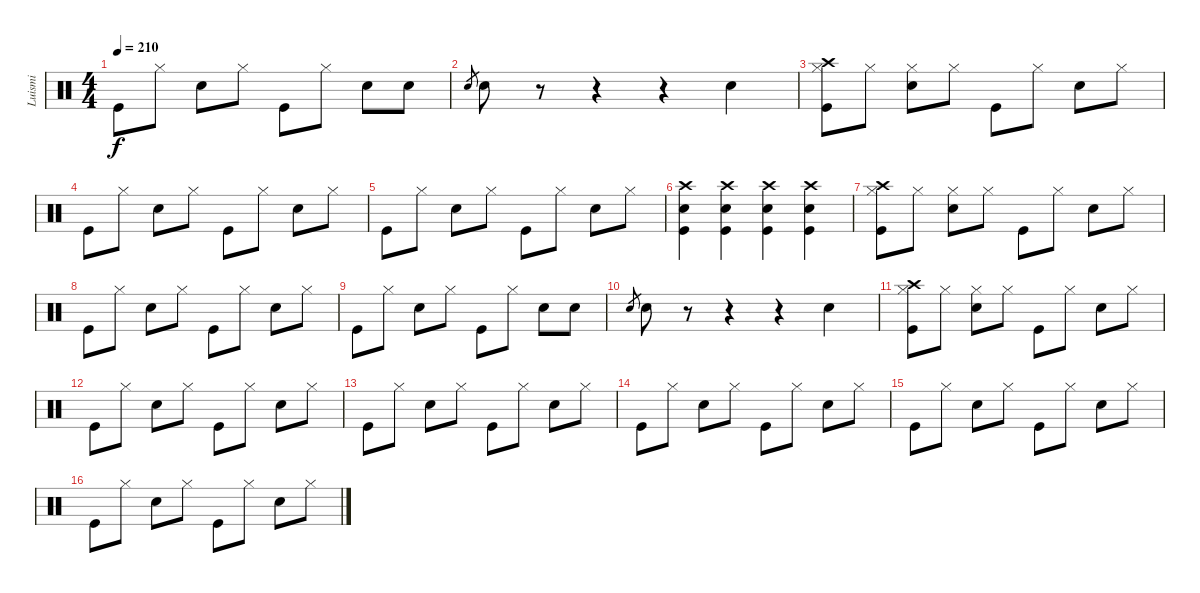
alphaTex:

\track ("Luismi" "Luismi") {instrument percussion}
\staff {score}
\articulation defaults
\ts (4 4)
\tempo 210
\clef neutral
\ks c "Kick (hit)".8{dy f} "Hi-Hat (closed)".8 "Snare (hit) 2".8 "Hi-Hat (closed)".8 "Kick (hit)".8 "Hi-Hat (closed)".8 "Snare (hit) 2".8 "Snare (hit) 2".8
|
"Snare (hit) 2".8{gr} "Snare (hit) 2".8 r.8 r.4 r.4 "Snare (hit) 2".4 |
("Kick (hit)" "Crash high (hit)" "Hi-Hat (closed)").8 "Hi-Hat (closed)".8 ("Snare (hit) 2" "Hi-Hat (closed)").8 "Hi-Hat (closed)".8 "Kick (hit)".8 "Hi-Hat (closed)".8 "Snare (hit) 2".8 "Hi-Hat (closed)".8 |
"Kick (hit)".8 "Hi-Hat (closed)".8 "Snare (hit) 2".8 "Hi-Hat (closed)".8 "Kick (hit)".8 "Hi-Hat (closed)".8 "Snare (hit) 2".8 "Hi-Hat (closed)".8 |
"Kick (hit)".8 "Hi-Hat (closed)".8 "Snare (hit) 2".8 "Hi-Hat (closed)".8 "Kick (hit)".8 "Hi-Hat (closed)".8 "Snare (hit) 2".8 "Hi-Hat (closed)".8 |
("Snare (hit) 2" "Kick (hit)" "Crash high (hit)").4 ("Snare (hit) 2" "Kick (hit)" "Crash high (hit)").4 ("Snare (hit) 2" "Kick (hit)" "Crash high (hit)").4 ("Snare (hit) 2" "Kick (hit)" "Crash high (hit)").4 |
("Kick (hit)" "Crash high (hit)" "Hi-Hat (closed)").8 "Hi-Hat (closed)".8 ("Snare (hit) 2" "Hi-Hat (closed)").8 "Hi-Hat (closed)".8 "Kick (hit)".8 "Hi-Hat (closed)".8 "Snare (hit) 2".8 "Hi-Hat (closed)".8 |
"Kick (hit)".8 "Hi-Hat (closed)".8 "Snare (hit) 2".8 "Hi-Hat (closed)".8 "Kick (hit)".8 "Hi-Hat (closed)".8 "Snare (hit) 2".8 "Hi-Hat (closed)".8 |
"Kick (hit)".8 "Hi-Hat (closed)".8 "Snare (hit) 2".8 "Hi-Hat (closed)".8 "Kick (hit)".8 "Hi-Hat (closed)".8 "Snare (hit) 2".8 "Snare (hit) 2".8 |
"Snare (hit) 2".8{gr} "Snare (hit) 2".8 r.8 r.4 r.4 "Snare (hit) 2".4 |
("Kick (hit)" "Crash high (hit)" "Hi-Hat (closed)").8 "Hi-Hat (closed)".8 ("Snare (hit) 2" "Hi-Hat (closed)").8 "Hi-Hat (closed)".8 "Kick (hit)".8 "Hi-Hat (closed)".8 "Snare (hit) 2".8 "Hi-Hat (closed)".8 |
"Kick (hit)".8 "Hi-Hat (closed)".8 "Snare (hit) 2".8 "Hi-Hat (closed)".8 "Kick (hit)".8 "Hi-Hat (closed)".8 "Snare (hit) 2".8 "Hi-Hat (closed)".8 |
"Kick (hit)".8 "Hi-Hat (closed)".8 "Snare (hit) 2".8 "Hi-Hat (closed)".8 "Kick (hit)".8 "Hi-Hat (closed)".8 "Snare (hit) 2".8 "Hi-Hat (closed)".8 |
"Kick (hit)".8 "Hi-Hat (closed)".8 "Snare (hit) 2".8 "Hi-Hat (closed)".8 "Kick (hit)".8 "Hi-Hat (closed)".8 "Snare (hit) 2".8 "Hi-Hat (closed)".8 |
"Kick (hit)".8 "Hi-Hat (closed)".8 "Snare (hit) 2".8 "Hi-Hat (closed)".8 "Kick (hit)".8 "Hi-Hat (closed)".8 "Snare (hit) 2".8 "Hi-Hat (closed)".8 |
"Kick (hit)".8 "Hi-Hat (closed)".8 "Snare (hit) 2".8 "Hi-Hat (closed)".8 "Kick (hit)".8 "Hi-Hat (closed)".8 "Snare (hit) 2".8 "Hi-Hat (closed)".8
